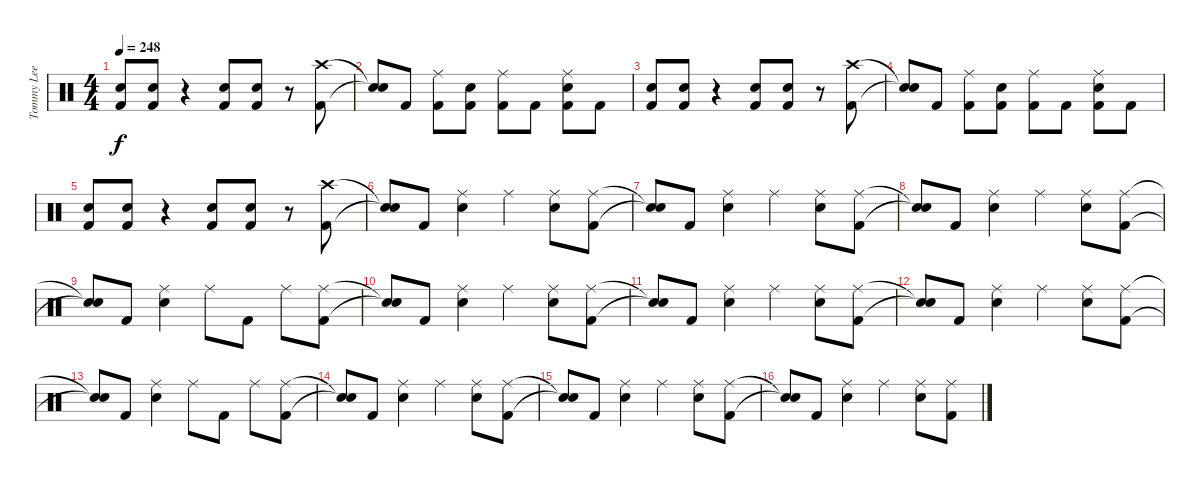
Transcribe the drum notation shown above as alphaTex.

\track ("Tommy Lee" "Tommy Lee") {instrument percussion}
\staff {score}
\articulation defaults
\ts (4 4)
\tempo 248
\clef neutral
\ks c
("Electric Snare (hit)" "Kick (hit) 2").8{dy f} ("Electric Snare (hit)" "Kick (hit) 2").8 r.4 ("Electric Snare (hit)" "Kick (hit) 2").8 ("Electric Snare (hit)" "Kick (hit) 2").8 r.8 ("Crash high (hit)" "Kick (hit) 2").8 |
("Snare (hit)"{t} "Snare (hit)"{t}).8 "Kick (hit) 2".8 ("Ride (middle)" "Kick (hit) 2").8 ("Electric Snare (hit)" "Kick (hit) 2").8 ("Ride (middle)" "Kick (hit) 2").8 "Kick (hit) 2".8 ("Ride (middle)" "Electric Snare (hit)" "Kick (hit) 2").8 "Kick (hit) 2".8 |
("Electric Snare (hit)" "Kick (hit) 2").8 ("Electric Snare (hit)" "Kick (hit) 2").8 r.4 ("Electric Snare (hit)" "Kick (hit) 2").8 ("Electric Snare (hit)" "Kick (hit) 2").8 r.8 ("Crash high (hit)" "Kick (hit) 2").8 |
("Snare (hit)"{t} "Snare (hit)"{t}).8 "Kick (hit) 2".8 ("Ride (middle)" "Kick (hit) 2").8 ("Electric Snare (hit)" "Kick (hit) 2").8 ("Ride (middle)" "Kick (hit) 2").8 "Kick (hit) 2".8 ("Ride (middle)" "Electric Snare (hit)" "Kick (hit) 2").8 "Kick (hit) 2".8 |
("Electric Snare (hit)" "Kick (hit) 2").8 ("Electric Snare (hit)" "Kick (hit) 2").8 r.4 ("Electric Snare (hit)" "Kick (hit) 2").8 ("Electric Snare (hit)" "Kick (hit) 2").8 r.8 ("Crash high (hit)" "Kick (hit) 2").8 |
("Snare (hit)"{t} "Snare (hit)"{t}).8 "Kick (hit) 2".8 ("Ride (middle)" "Electric Snare (hit)").4 "Ride (middle)".4 ("Ride (middle)" "Electric Snare (hit)").8 ("Ride (middle)" "Kick (hit) 2").8 |
("Snare (hit)"{t} "Snare (hit)"{t}).8 "Kick (hit) 2".8 ("Ride (middle)" "Electric Snare (hit)").4 "Ride (middle)".4 ("Ride (middle)" "Electric Snare (hit)").8 ("Ride (middle)" "Kick (hit) 2").8 |
("Snare (hit)"{t} "Snare (hit)"{t}).8 "Kick (hit) 2".8 ("Ride (middle)" "Electric Snare (hit)").4 "Ride (middle)".4 ("Ride (middle)" "Electric Snare (hit)").8 ("Ride (middle)" "Kick (hit) 2").8 |
("Snare (hit)"{t} "Snare (hit)"{t}).8 "Kick (hit) 2".8 ("Ride (middle)" "Electric Snare (hit)").4 "Ride (middle)".8 "Kick (hit) 2".8 "Ride (middle)".8 ("Ride (middle)" "Kick (hit) 2").8 |
("Snare (hit)"{t} "Snare (hit)"{t}).8 "Kick (hit) 2".8 ("Ride (middle)" "Electric Snare (hit)").4 "Ride (middle)".4 ("Ride (middle)" "Electric Snare (hit)").8 ("Ride (middle)" "Kick (hit) 2").8 |
("Snare (hit)"{t} "Snare (hit)"{t}).8 "Kick (hit) 2".8 ("Ride (middle)" "Electric Snare (hit)").4 "Ride (middle)".4 ("Ride (middle)" "Electric Snare (hit)").8 ("Ride (middle)" "Kick (hit) 2").8 |
("Snare (hit)"{t} "Snare (hit)"{t}).8 "Kick (hit) 2".8 ("Ride (middle)" "Electric Snare (hit)").4 "Ride (middle)".4 ("Ride (middle)" "Electric Snare (hit)").8 ("Ride (middle)" "Kick (hit) 2").8 |
("Snare (hit)"{t} "Snare (hit)"{t}).8 "Kick (hit) 2".8 ("Ride (middle)" "Electric Snare (hit)").4 "Ride (middle)".8 "Kick (hit) 2".8 "Ride (middle)".8 ("Ride (middle)" "Kick (hit) 2").8 |
("Snare (hit)"{t} "Snare (hit)"{t}).8 "Kick (hit) 2".8 ("Ride (middle)" "Electric Snare (hit)").4 "Ride (middle)".4 ("Ride (middle)" "Electric Snare (hit)").8 ("Ride (middle)" "Kick (hit) 2").8 |
("Snare (hit)"{t} "Snare (hit)"{t}).8 "Kick (hit) 2".8 ("Ride (middle)" "Electric Snare (hit)").4 "Ride (middle)".4 ("Ride (middle)" "Electric Snare (hit)").8 ("Ride (middle)" "Kick (hit) 2").8 |
("Snare (hit)"{t} "Snare (hit)"{t}).8 "Kick (hit) 2".8 ("Ride (middle)" "Electric Snare (hit)").4 "Ride (middle)".4 ("Ride (middle)" "Electric Snare (hit)").8 ("Ride (middle)" "Kick (hit) 2").8
